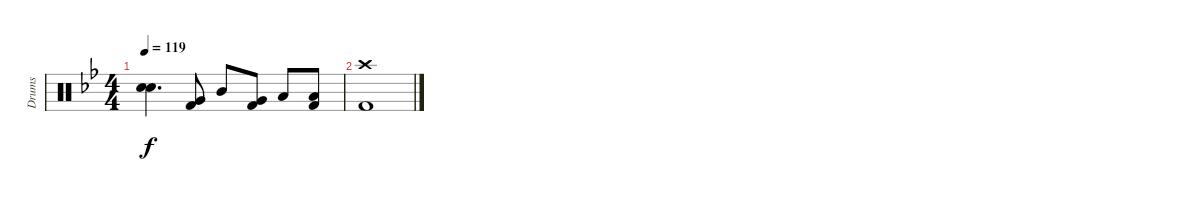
\track ("Drums" "Drums") {instrument percussion}
\staff {score}
\articulation defaults
\ts (4 4)
\tempo 119
\clef neutral
\ks bb
("Snare (hit)"{t} "Snare (hit)"{t}).4{d dy f} ("Very Low Tom (hit)" "Kick (hit) 2").8 "Mid Tom (hit)".8 ("Very Low Tom (hit)" "Kick (hit) 2").8 "Low Tom (hit)".8 ("Low Floor Tom (hit)" "Kick (hit) 2").8 |
("Crash high (hit)" "Kick (hit) 2").1
